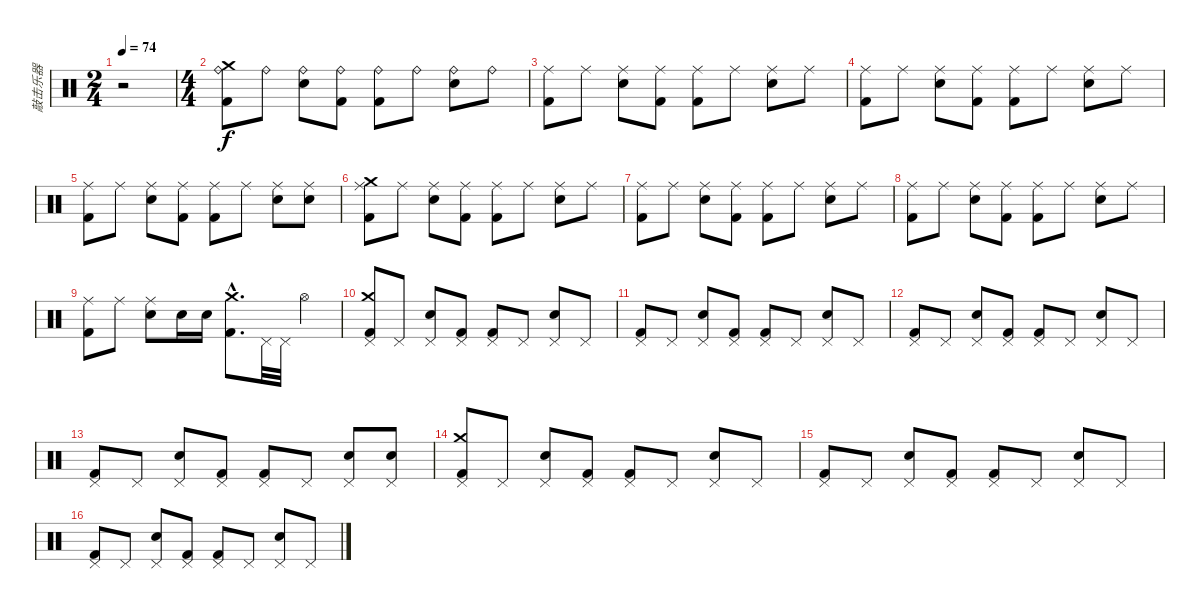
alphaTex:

\track ("敲击乐器" "敲击乐器") {instrument percussion}
\staff {score}
\articulation defaults
\ts (2 4)
\tempo 74
\clef neutral
\ks c
r.2{dy f} |
\ts (4 4)
("Ride (bell)" "Kick (hit) 2" "Crash medium (hit)").8 "Ride (bell)".8 ("Ride (bell)" "Electric Snare (hit)").8 ("Ride (bell)" "Kick (hit) 2").8 ("Ride (bell)" "Kick (hit) 2").8 "Ride (bell)".8 ("Ride (bell)" "Electric Snare (hit)").8 "Ride (bell)".8 |
("Ride (middle)" "Kick (hit) 2").8 "Ride (middle)".8 ("Ride (middle)" "Electric Snare (hit)").8 ("Ride (middle)" "Kick (hit) 2").8 ("Ride (middle)" "Kick (hit) 2").8 "Ride (middle)".8 ("Ride (middle)" "Electric Snare (hit)").8 "Ride (middle)".8 |
("Ride (middle)" "Kick (hit) 2").8 "Ride (middle)".8 ("Ride (middle)" "Electric Snare (hit)").8 ("Ride (middle)" "Kick (hit) 2").8 ("Ride (middle)" "Kick (hit) 2").8 "Ride (middle)".8 ("Ride (middle)" "Electric Snare (hit)").8 "Ride (middle)".8 |
("Ride (middle)" "Kick (hit) 2").8 "Ride (middle)".8 ("Ride (middle)" "Electric Snare (hit)").8 ("Ride (middle)" "Kick (hit) 2").8 ("Ride (middle)" "Kick (hit) 2").8 "Ride (middle)".8 ("Ride (middle)" "Electric Snare (hit)").8 ("Ride (middle)" "Electric Snare (hit)").8 |
("Ride (middle)" "Kick (hit) 2" "Crash medium (hit)").8 "Ride (middle)".8 ("Ride (middle)" "Electric Snare (hit)").8 ("Ride (middle)" "Kick (hit) 2").8 ("Ride (middle)" "Kick (hit) 2").8 "Ride (middle)".8 ("Ride (middle)" "Electric Snare (hit)").8 "Ride (middle)".8 |
("Ride (middle)" "Kick (hit) 2").8 "Ride (middle)".8 ("Ride (middle)" "Electric Snare (hit)").8 ("Ride (middle)" "Kick (hit) 2").8 ("Ride (middle)" "Kick (hit) 2").8 "Ride (middle)".8 ("Ride (middle)" "Electric Snare (hit)").8 "Ride (middle)".8 |
("Ride (middle)" "Kick (hit) 2").8 "Ride (middle)".8 ("Ride (middle)" "Electric Snare (hit)").8 ("Ride (middle)" "Kick (hit) 2").8 ("Ride (middle)" "Kick (hit) 2").8 "Ride (middle)".8 ("Ride (middle)" "Electric Snare (hit)").8 "Ride (middle)".8 |
("Ride (middle)" "Kick (hit) 2").8 "Ride (middle)".8 ("Ride (middle)" "Electric Snare (hit)").8 "Electric Snare (hit)".16 "Electric Snare (hit)".16 ("Kick (hit) 2"{hac} "Crash medium (hit)"{hac}).8{d} "Pedal Hi-Hat (hit)".32 "Pedal Hi-Hat (hit)".32 "Hi-Hat (open)".4 |
("Pedal Hi-Hat (hit)" "Kick (hit) 2" "Crash medium (hit)").8 "Pedal Hi-Hat (hit)".8 ("Pedal Hi-Hat (hit)" "Electric Snare (hit)").8 ("Pedal Hi-Hat (hit)" "Kick (hit) 2").8 ("Pedal Hi-Hat (hit)" "Kick (hit) 2").8 "Pedal Hi-Hat (hit)".8 ("Pedal Hi-Hat (hit)" "Electric Snare (hit)").8 "Pedal Hi-Hat (hit)".8 |
("Pedal Hi-Hat (hit)" "Kick (hit) 2").8 "Pedal Hi-Hat (hit)".8 ("Pedal Hi-Hat (hit)" "Electric Snare (hit)").8 ("Pedal Hi-Hat (hit)" "Kick (hit) 2").8 ("Pedal Hi-Hat (hit)" "Kick (hit) 2").8 "Pedal Hi-Hat (hit)".8 ("Pedal Hi-Hat (hit)" "Electric Snare (hit)").8 "Pedal Hi-Hat (hit)".8 |
("Pedal Hi-Hat (hit)" "Kick (hit) 2").8 "Pedal Hi-Hat (hit)".8 ("Pedal Hi-Hat (hit)" "Electric Snare (hit)").8 ("Pedal Hi-Hat (hit)" "Kick (hit) 2").8 ("Pedal Hi-Hat (hit)" "Kick (hit) 2").8 "Pedal Hi-Hat (hit)".8 ("Pedal Hi-Hat (hit)" "Electric Snare (hit)").8 "Pedal Hi-Hat (hit)".8 |
("Pedal Hi-Hat (hit)" "Kick (hit) 2").8 "Pedal Hi-Hat (hit)".8 ("Pedal Hi-Hat (hit)" "Electric Snare (hit)").8 ("Pedal Hi-Hat (hit)" "Kick (hit) 2").8 ("Pedal Hi-Hat (hit)" "Kick (hit) 2").8 "Pedal Hi-Hat (hit)".8 ("Pedal Hi-Hat (hit)" "Electric Snare (hit)").8 ("Pedal Hi-Hat (hit)" "Electric Snare (hit)").8 |
("Pedal Hi-Hat (hit)" "Kick (hit) 2" "Crash medium (hit)").8 "Pedal Hi-Hat (hit)".8 ("Pedal Hi-Hat (hit)" "Electric Snare (hit)").8 ("Pedal Hi-Hat (hit)" "Kick (hit) 2").8 ("Pedal Hi-Hat (hit)" "Kick (hit) 2").8 "Pedal Hi-Hat (hit)".8 ("Pedal Hi-Hat (hit)" "Electric Snare (hit)").8 "Pedal Hi-Hat (hit)".8 |
("Pedal Hi-Hat (hit)" "Kick (hit) 2").8 "Pedal Hi-Hat (hit)".8 ("Pedal Hi-Hat (hit)" "Electric Snare (hit)").8 ("Pedal Hi-Hat (hit)" "Kick (hit) 2").8 ("Pedal Hi-Hat (hit)" "Kick (hit) 2").8 "Pedal Hi-Hat (hit)".8 ("Pedal Hi-Hat (hit)" "Electric Snare (hit)").8 "Pedal Hi-Hat (hit)".8 |
("Pedal Hi-Hat (hit)" "Kick (hit) 2").8 "Pedal Hi-Hat (hit)".8 ("Pedal Hi-Hat (hit)" "Electric Snare (hit)").8 ("Pedal Hi-Hat (hit)" "Kick (hit) 2").8 ("Pedal Hi-Hat (hit)" "Kick (hit) 2").8 "Pedal Hi-Hat (hit)".8 ("Pedal Hi-Hat (hit)" "Electric Snare (hit)").8 "Pedal Hi-Hat (hit)".8
